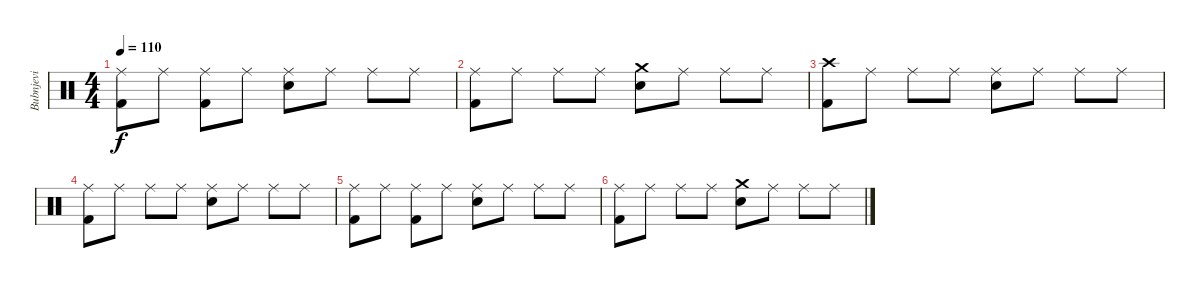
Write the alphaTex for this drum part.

\track ("Bubnjevi" "Bubnjevi") {instrument percussion}
\staff {score}
\articulation defaults
\ts (4 4)
\tempo 110
\clef neutral
\ks c
("Ride (middle)" "Kick (hit) 2").8{dy f} "Ride (middle)".8 ("Ride (middle)" "Kick (hit) 2").8 "Ride (middle)".8 ("Ride (middle)" "Electric Snare (hit)").8 "Ride (middle)".8 "Ride (middle)".8 "Ride (middle)".8 |
("Ride (middle)" "Kick (hit) 2").8 "Ride (middle)".8 "Ride (middle)".8 "Ride (middle)".8 ("Crash medium (hit)" "Electric Snare (hit)").8 "Ride (middle)".8 "Ride (middle)".8 "Ride (middle)".8 |
("Crash high (hit)" "Kick (hit) 2").8 "Ride (middle)".8 "Ride (middle)".8 "Ride (middle)".8 ("Ride (middle)" "Electric Snare (hit)").8 "Ride (middle)".8 "Ride (middle)".8 "Ride (middle)".8 |
("Ride (middle)" "Kick (hit) 2").8 "Ride (middle)".8 "Ride (middle)".8 "Ride (middle)".8 ("Ride (middle)" "Electric Snare (hit)").8 "Ride (middle)".8 "Ride (middle)".8 "Ride (middle)".8 |
("Ride (middle)" "Kick (hit) 2").8 "Ride (middle)".8 ("Ride (middle)" "Kick (hit) 2").8 "Ride (middle)".8 ("Ride (middle)" "Electric Snare (hit)").8 "Ride (middle)".8 "Ride (middle)".8 "Ride (middle)".8 |
("Ride (middle)" "Kick (hit) 2").8 "Ride (middle)".8 "Ride (middle)".8 "Ride (middle)".8 ("Crash medium (hit)" "Electric Snare (hit)").8 "Ride (middle)".8 "Ride (middle)".8 "Ride (middle)".8
